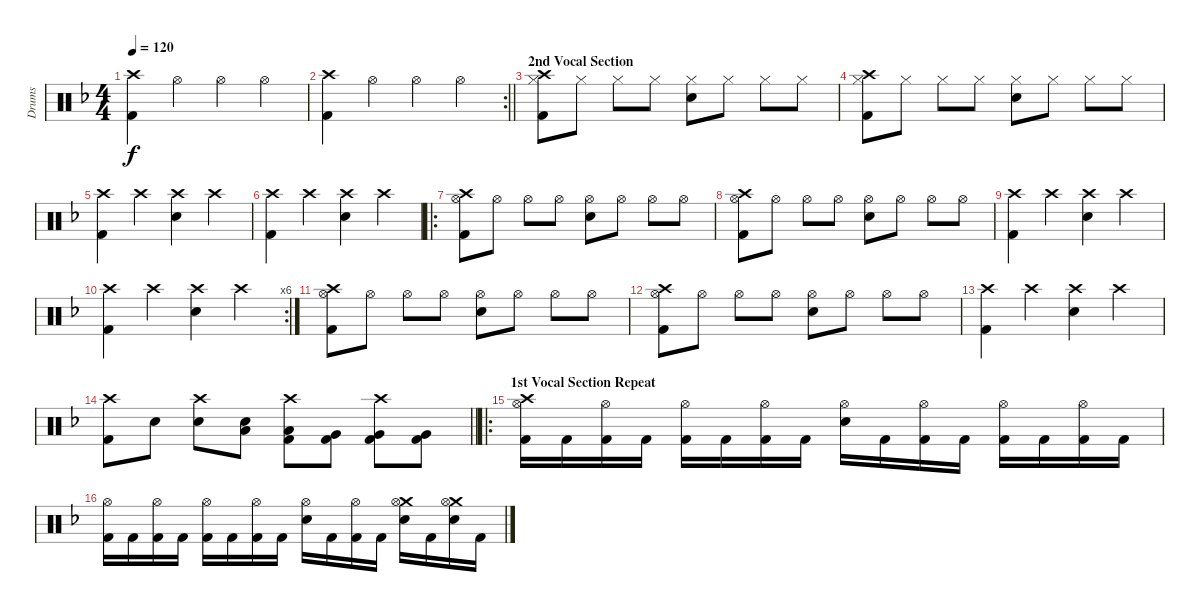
\track ("Drums" "Drums") {instrument percussion}
\staff {score}
\articulation defaults
\ts (4 4)
\tempo 120
\clef neutral
\ks dminor
("Crash high (hit)" "Kick (hit) 2").4{dy f} "Hi-Hat (open)".4 "Hi-Hat (open)".4 "Hi-Hat (open)".4 |
\rc 2
\barLineRight lightlight
("Crash high (hit)" "Kick (hit) 2").4 "Hi-Hat (open)".4 "Hi-Hat (open)".4 "Hi-Hat (open)".4 |
\section ("" "2nd Vocal Section")
("Crash high (hit)" "Hi-Hat (closed)" "Kick (hit) 2").8 "Hi-Hat (closed)".8 "Hi-Hat (closed)".8 "Hi-Hat (closed)".8 ("Hi-Hat (closed)" "Snare (hit) 2").8 "Hi-Hat (closed)".8 "Hi-Hat (closed)".8 "Hi-Hat (closed)".8 |
("Crash high (hit)" "Hi-Hat (closed)" "Kick (hit) 2").8 "Hi-Hat (closed)".8 "Hi-Hat (closed)".8 "Hi-Hat (closed)".8 ("Hi-Hat (closed)" "Snare (hit) 2").8 "Hi-Hat (closed)".8 "Hi-Hat (closed)".8 "Hi-Hat (closed)".8 |
("Crash high (hit)" "Kick (hit) 2").4 "Crash high (hit)".4 ("Crash high (hit)" "Snare (hit) 2").4 "Crash high (hit)".4 |
("Crash high (hit)" "Kick (hit) 2").4 "Crash high (hit)".4 ("Crash high (hit)" "Snare (hit) 2").4 "Crash high (hit)".4 |
\ro
("Crash high (hit)" "Hi-Hat (open)" "Kick (hit) 2").8 "Hi-Hat (open)".8 "Hi-Hat (open)".8 "Hi-Hat (open)".8 ("Hi-Hat (open)" "Snare (hit) 2").8 "Hi-Hat (open)".8 "Hi-Hat (open)".8 "Hi-Hat (open)".8 |
("Crash high (hit)" "Hi-Hat (open)" "Kick (hit) 2").8 "Hi-Hat (open)".8 "Hi-Hat (open)".8 "Hi-Hat (open)".8 ("Hi-Hat (open)" "Snare (hit) 2").8 "Hi-Hat (open)".8 "Hi-Hat (open)".8 "Hi-Hat (open)".8 |
("Crash high (hit)" "Kick (hit) 2").4 "Crash high (hit)".4 ("Crash high (hit)" "Snare (hit) 2").4 "Crash high (hit)".4 |
\rc 6
("Crash high (hit)" "Kick (hit) 2").4 "Crash high (hit)".4 ("Crash high (hit)" "Snare (hit) 2").4 "Crash high (hit)".4 |
("Crash high (hit)" "Hi-Hat (open)" "Kick (hit) 2").8 "Hi-Hat (open)".8 "Hi-Hat (open)".8 "Hi-Hat (open)".8 ("Hi-Hat (open)" "Snare (hit) 2").8 "Hi-Hat (open)".8 "Hi-Hat (open)".8 "Hi-Hat (open)".8 |
("Crash high (hit)" "Hi-Hat (open)" "Kick (hit) 2").8 "Hi-Hat (open)".8 "Hi-Hat (open)".8 "Hi-Hat (open)".8 ("Hi-Hat (open)" "Snare (hit) 2").8 "Hi-Hat (open)".8 "Hi-Hat (open)".8 "Hi-Hat (open)".8 |
("Crash high (hit)" "Kick (hit) 2").4 "Crash high (hit)".4 ("Crash high (hit)" "Snare (hit) 2").4 "Crash high (hit)".4 |
\barLineRight lightlight
("Crash high (hit)" "Kick (hit) 2").8 "Snare (hit) 2".8 ("Crash high (hit)" "Snare (hit) 2").8 ("Low Tom (hit)" "Snare (hit) 2").8 ("Crash high (hit)" "Low Tom (hit)" "Kick (hit) 2").8 ("Very Low Tom (hit)" "Kick (hit) 2").8 ("Crash high (hit)" "Very Low Tom (hit)" "Kick (hit) 2").8 ("Very Low Tom (hit)" "Kick (hit) 2").8 |
\ro
\section ("" "1st Vocal Section Repeat")
("Crash high (hit)" "Hi-Hat (open)" "Kick (hit) 2").16 "Kick (hit) 2".16 ("Hi-Hat (open)" "Kick (hit) 2").16 "Kick (hit) 2".16 ("Hi-Hat (open)" "Kick (hit) 2").16 "Kick (hit) 2".16 ("Hi-Hat (open)" "Kick (hit) 2").16 "Kick (hit) 2".16 ("Hi-Hat (open)" "Snare (hit) 2").16 "Kick (hit) 2".16 ("Hi-Hat (open)" "Kick (hit) 2").16 "Kick (hit) 2".16 ("Hi-Hat (open)" "Kick (hit) 2").16 "Kick (hit) 2".16 ("Hi-Hat (open)" "Kick (hit) 2").16 "Kick (hit) 2".16 |
("Hi-Hat (open)" "Kick (hit) 2").16 "Kick (hit) 2".16 ("Hi-Hat (open)" "Kick (hit) 2").16 "Kick (hit) 2".16 ("Hi-Hat (open)" "Kick (hit) 2").16 "Kick (hit) 2".16 ("Hi-Hat (open)" "Kick (hit) 2").16 "Kick (hit) 2".16 ("Hi-Hat (open)" "Snare (hit) 2").16 "Kick (hit) 2".16 ("Hi-Hat (open)" "Kick (hit) 2").16 "Kick (hit) 2".16 ("Crash medium (hit)" "Hi-Hat (open)" "Snare (hit) 2").16 "Kick (hit) 2".16 ("Crash medium (hit)" "Hi-Hat (open)" "Snare (hit) 2").16 "Kick (hit) 2".16
